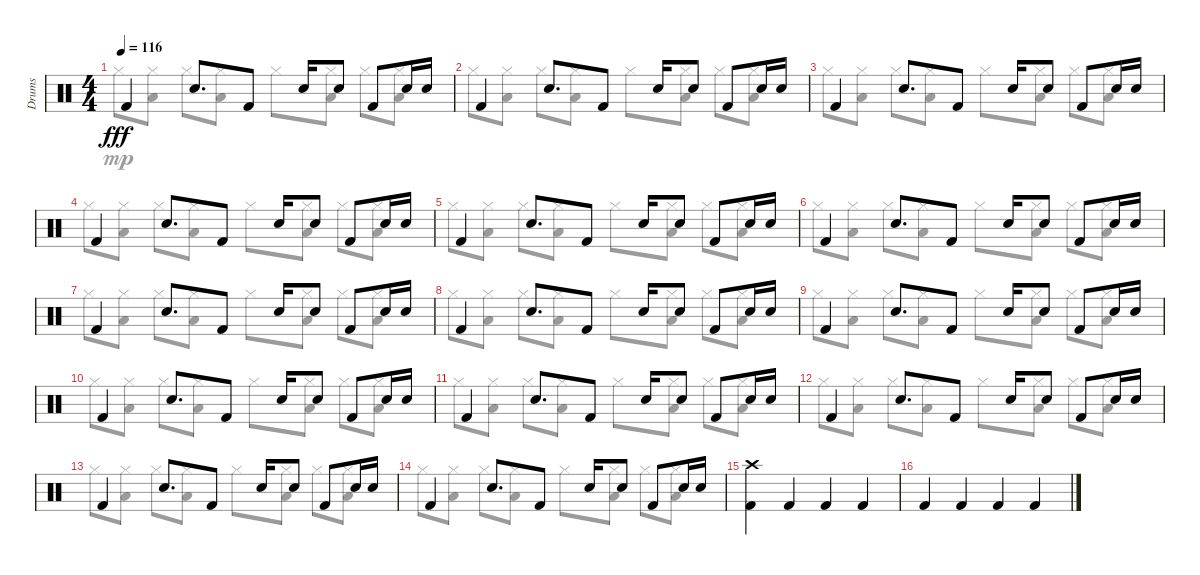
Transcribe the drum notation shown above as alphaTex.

\track ("Drums" "Drums") {instrument percussion}
\staff {score}
\articulation defaults
\voice
\ts (4 4)
\tempo 116
\clef neutral
\ks c "Kick (hit) 2".4{dy fff} "Electric Snare (hit)".8{d} "Kick (hit) 2".8 "Electric Snare (hit)".16 "Electric Snare (hit)".8 "Kick (hit) 2".8 "Electric Snare (hit)".16 "Electric Snare (hit)".16
|
"Kick (hit) 2".4 "Electric Snare (hit)".8{d} "Kick (hit) 2".8 "Electric Snare (hit)".16 "Electric Snare (hit)".8 "Kick (hit) 2".8 "Electric Snare (hit)".16 "Electric Snare (hit)".16 |
"Kick (hit) 2".4 "Electric Snare (hit)".8{d} "Kick (hit) 2".8 "Electric Snare (hit)".16 "Electric Snare (hit)".8 "Kick (hit) 2".8 "Electric Snare (hit)".16 "Electric Snare (hit)".16 |
"Kick (hit) 2".4 "Electric Snare (hit)".8{d} "Kick (hit) 2".8 "Electric Snare (hit)".16 "Electric Snare (hit)".8 "Kick (hit) 2".8 "Electric Snare (hit)".16 "Electric Snare (hit)".16 |
"Kick (hit) 2".4 "Electric Snare (hit)".8{d} "Kick (hit) 2".8 "Electric Snare (hit)".16 "Electric Snare (hit)".8 "Kick (hit) 2".8 "Electric Snare (hit)".16 "Electric Snare (hit)".16 |
"Kick (hit) 2".4 "Electric Snare (hit)".8{d} "Kick (hit) 2".8 "Electric Snare (hit)".16 "Electric Snare (hit)".8 "Kick (hit) 2".8 "Electric Snare (hit)".16 "Electric Snare (hit)".16 |
"Kick (hit) 2".4 "Electric Snare (hit)".8{d} "Kick (hit) 2".8 "Electric Snare (hit)".16 "Electric Snare (hit)".8 "Kick (hit) 2".8 "Electric Snare (hit)".16 "Electric Snare (hit)".16 |
"Kick (hit) 2".4 "Electric Snare (hit)".8{d} "Kick (hit) 2".8 "Electric Snare (hit)".16 "Electric Snare (hit)".8 "Kick (hit) 2".8 "Electric Snare (hit)".16 "Electric Snare (hit)".16 |
"Kick (hit) 2".4 "Electric Snare (hit)".8{d} "Kick (hit) 2".8 "Electric Snare (hit)".16 "Electric Snare (hit)".8 "Kick (hit) 2".8 "Electric Snare (hit)".16 "Electric Snare (hit)".16 |
"Kick (hit) 2".4 "Electric Snare (hit)".8{d} "Kick (hit) 2".8 "Electric Snare (hit)".16 "Electric Snare (hit)".8 "Kick (hit) 2".8 "Electric Snare (hit)".16 "Electric Snare (hit)".16 |
"Kick (hit) 2".4 "Electric Snare (hit)".8{d} "Kick (hit) 2".8 "Electric Snare (hit)".16 "Electric Snare (hit)".8 "Kick (hit) 2".8 "Electric Snare (hit)".16 "Electric Snare (hit)".16 |
"Kick (hit) 2".4 "Electric Snare (hit)".8{d} "Kick (hit) 2".8 "Electric Snare (hit)".16 "Electric Snare (hit)".8 "Kick (hit) 2".8 "Electric Snare (hit)".16 "Electric Snare (hit)".16 |
"Kick (hit) 2".4 "Electric Snare (hit)".8{d} "Kick (hit) 2".8 "Electric Snare (hit)".16 "Electric Snare (hit)".8 "Kick (hit) 2".8 "Electric Snare (hit)".16 "Electric Snare (hit)".16 |
"Kick (hit) 2".4 "Electric Snare (hit)".8{d} "Kick (hit) 2".8 "Electric Snare (hit)".16 "Electric Snare (hit)".8 "Kick (hit) 2".8 "Electric Snare (hit)".16 "Electric Snare (hit)".16 |
("Crash high (hit)" "Kick (hit) 2").4 "Kick (hit) 2".4 "Kick (hit) 2".4 "Kick (hit) 2".4 |
"Kick (hit) 2".4 "Kick (hit) 2".4 "Kick (hit) 2".4 "Kick (hit) 2".4
\voice
\clef neutral
\ottava regular
\simile none
\ks c "Hi-Hat (closed)".8{dy mp}
("Hi-Hat (closed)" "Low Floor Tom (hit)").8 "Hi-Hat (closed)".8 ("Hi-Hat (closed)" "Low Floor Tom (hit)").8 "Hi-Hat (closed)".8 ("Hi-Hat (closed)" "Low Floor Tom (hit)").8 "Hi-Hat (closed)".8 ("Hi-Hat (closed)" "Low Floor Tom (hit)").8 |
"Hi-Hat (closed)".8 ("Hi-Hat (closed)" "Low Floor Tom (hit)").8 "Hi-Hat (closed)".8 ("Hi-Hat (closed)" "Low Floor Tom (hit)").8 "Hi-Hat (closed)".8 ("Hi-Hat (closed)" "Low Floor Tom (hit)").8 "Hi-Hat (closed)".8 ("Hi-Hat (closed)" "Low Floor Tom (hit)").8 |
"Hi-Hat (closed)".8 ("Hi-Hat (closed)" "Low Floor Tom (hit)").8 "Hi-Hat (closed)".8 ("Hi-Hat (closed)" "Low Floor Tom (hit)").8 "Hi-Hat (closed)".8 ("Hi-Hat (closed)" "Low Floor Tom (hit)").8 "Hi-Hat (closed)".8 ("Hi-Hat (closed)" "Low Floor Tom (hit)").8 |
"Hi-Hat (closed)".8 ("Hi-Hat (closed)" "Low Floor Tom (hit)").8 "Hi-Hat (closed)".8 ("Hi-Hat (closed)" "Low Floor Tom (hit)").8 "Hi-Hat (closed)".8 ("Hi-Hat (closed)" "Low Floor Tom (hit)").8 "Hi-Hat (closed)".8 ("Hi-Hat (closed)" "Low Floor Tom (hit)").8 |
"Hi-Hat (closed)".8 ("Hi-Hat (closed)" "Low Floor Tom (hit)").8 "Hi-Hat (closed)".8 ("Hi-Hat (closed)" "Low Floor Tom (hit)").8 "Hi-Hat (closed)".8 ("Hi-Hat (closed)" "Low Floor Tom (hit)").8 "Hi-Hat (closed)".8 ("Hi-Hat (closed)" "Low Floor Tom (hit)").8 |
"Hi-Hat (closed)".8 ("Hi-Hat (closed)" "Low Floor Tom (hit)").8 "Hi-Hat (closed)".8 ("Hi-Hat (closed)" "Low Floor Tom (hit)").8 "Hi-Hat (closed)".8 ("Hi-Hat (closed)" "Low Floor Tom (hit)").8 "Hi-Hat (closed)".8 ("Hi-Hat (closed)" "Low Floor Tom (hit)").8 |
"Hi-Hat (closed)".8 ("Hi-Hat (closed)" "Low Floor Tom (hit)").8 "Hi-Hat (closed)".8 ("Hi-Hat (closed)" "Low Floor Tom (hit)").8 "Hi-Hat (closed)".8 ("Hi-Hat (closed)" "Low Floor Tom (hit)").8 "Hi-Hat (closed)".8 ("Hi-Hat (closed)" "Low Floor Tom (hit)").8 |
"Hi-Hat (closed)".8 ("Hi-Hat (closed)" "Low Floor Tom (hit)").8 "Hi-Hat (closed)".8 ("Hi-Hat (closed)" "Low Floor Tom (hit)").8 "Hi-Hat (closed)".8 ("Hi-Hat (closed)" "Low Floor Tom (hit)").8 "Hi-Hat (closed)".8 ("Hi-Hat (closed)" "Low Floor Tom (hit)").8 |
"Hi-Hat (closed)".8 ("Hi-Hat (closed)" "Low Floor Tom (hit)").8 "Hi-Hat (closed)".8 ("Hi-Hat (closed)" "Low Floor Tom (hit)").8 "Hi-Hat (closed)".8 ("Hi-Hat (closed)" "Low Floor Tom (hit)").8 "Hi-Hat (closed)".8 ("Hi-Hat (closed)" "Low Floor Tom (hit)").8 |
"Hi-Hat (closed)".8 ("Hi-Hat (closed)" "Low Floor Tom (hit)").8 "Hi-Hat (closed)".8 ("Hi-Hat (closed)" "Low Floor Tom (hit)").8 "Hi-Hat (closed)".8 ("Hi-Hat (closed)" "Low Floor Tom (hit)").8 "Hi-Hat (closed)".8 ("Hi-Hat (closed)" "Low Floor Tom (hit)").8 |
"Hi-Hat (closed)".8 ("Hi-Hat (closed)" "Low Floor Tom (hit)").8 "Hi-Hat (closed)".8 ("Hi-Hat (closed)" "Low Floor Tom (hit)").8 "Hi-Hat (closed)".8 ("Hi-Hat (closed)" "Low Floor Tom (hit)").8 "Hi-Hat (closed)".8 ("Hi-Hat (closed)" "Low Floor Tom (hit)").8 |
"Hi-Hat (closed)".8 ("Hi-Hat (closed)" "Low Floor Tom (hit)").8 "Hi-Hat (closed)".8 ("Hi-Hat (closed)" "Low Floor Tom (hit)").8 "Hi-Hat (closed)".8 ("Hi-Hat (closed)" "Low Floor Tom (hit)").8 "Hi-Hat (closed)".8 ("Hi-Hat (closed)" "Low Floor Tom (hit)").8 |
"Hi-Hat (closed)".8 ("Hi-Hat (closed)" "Low Floor Tom (hit)").8 "Hi-Hat (closed)".8 ("Hi-Hat (closed)" "Low Floor Tom (hit)").8 "Hi-Hat (closed)".8 ("Hi-Hat (closed)" "Low Floor Tom (hit)").8 "Hi-Hat (closed)".8 ("Hi-Hat (closed)" "Low Floor Tom (hit)").8 |
"Hi-Hat (closed)".8 ("Hi-Hat (closed)" "Low Floor Tom (hit)").8 "Hi-Hat (closed)".8 ("Hi-Hat (closed)" "Low Floor Tom (hit)").8 "Hi-Hat (closed)".8 ("Hi-Hat (closed)" "Low Floor Tom (hit)").8 "Hi-Hat (closed)".8 ("Hi-Hat (closed)" "Low Floor Tom (hit)").8 |
|
